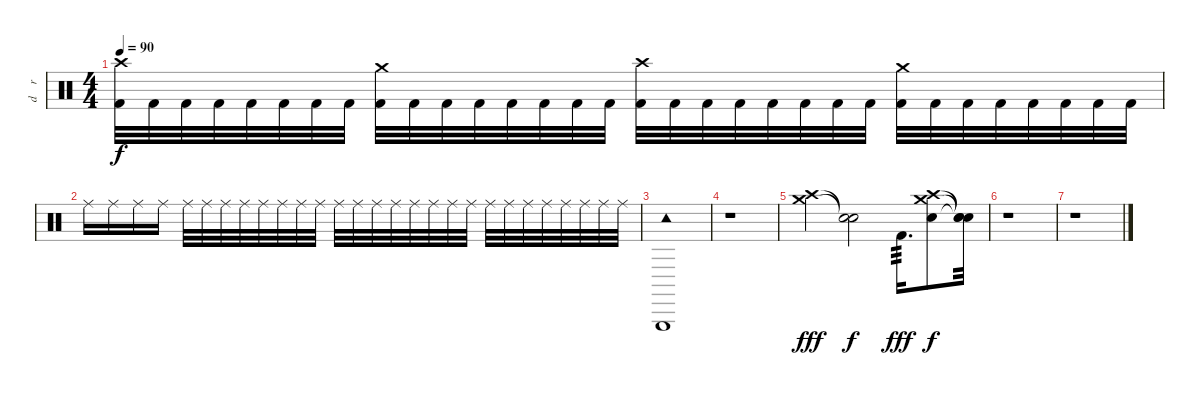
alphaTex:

\track ("d    r     u    m    s" "d    r    ") {instrument percussion}
\staff {score}
\articulation defaults
\ts (4 4)
\tempo 90
\clef neutral
\ks c
("Crash high (hit)" "Kick (hit) 2").32{dy f} "Kick (hit) 2".32 "Kick (hit) 2".32 "Kick (hit) 2".32 "Kick (hit) 2".32 "Kick (hit) 2".32 "Kick (hit) 2".32 "Kick (hit) 2".32 ("Crash medium (hit)" "Kick (hit) 2").32 "Kick (hit) 2".32 "Kick (hit) 2".32 "Kick (hit) 2".32 "Kick (hit) 2".32 "Kick (hit) 2".32 "Kick (hit) 2".32 "Kick (hit) 2".32 ("Crash high (hit)" "Kick (hit) 2").32 "Kick (hit) 2".32 "Kick (hit) 2".32 "Kick (hit) 2".32 "Kick (hit) 2".32 "Kick (hit) 2".32 "Kick (hit) 2".32 "Kick (hit) 2".32 ("Crash medium (hit)" "Kick (hit) 2").32 "Kick (hit) 2".32 "Kick (hit) 2".32 "Kick (hit) 2".32 "Kick (hit) 2".32 "Kick (hit) 2".32 "Kick (hit) 2".32 "Kick (hit) 2".32 |
"Ride (middle)".16 "Ride (middle)".16 "Ride (middle)".16 "Ride (middle)".16 "Ride (middle)".32 "Ride (middle)".32 "Ride (middle)".32 "Ride (middle)".32 "Ride (middle)".32 "Ride (middle)".32 "Ride (middle)".32 "Ride (middle)".32 "Ride (middle)".32 "Ride (middle)".32 "Ride (middle)".32 "Ride (middle)".32 "Ride (middle)".32 "Ride (middle)".32 "Ride (middle)".32 "Ride (middle)".32 "Ride (middle)".32 "Ride (middle)".32 "Ride (middle)".32 "Ride (middle)".32 "Ride (middle)".32 "Ride (middle)".32 "Ride (middle)".32 "Ride (middle)".32 |
("Tambourine (hit)" "Triangle (hit)").1 |
r.1 |
("Crash high (hit)" "Crash medium (hit)").4{dy fff} ("Snare (hit)"{t} "Snare (hit)"{t}).2{dy f} "Kick (hit) 2".16{d tp 3 dy fff} ("Crash high (hit)" "Crash medium (hit)" "Electric Snare (hit)").8{dy f} ("Snare (hit)"{t} "Snare (hit)"{t} "Snare (hit)"{t}).32 |
r.1 |
r.1
